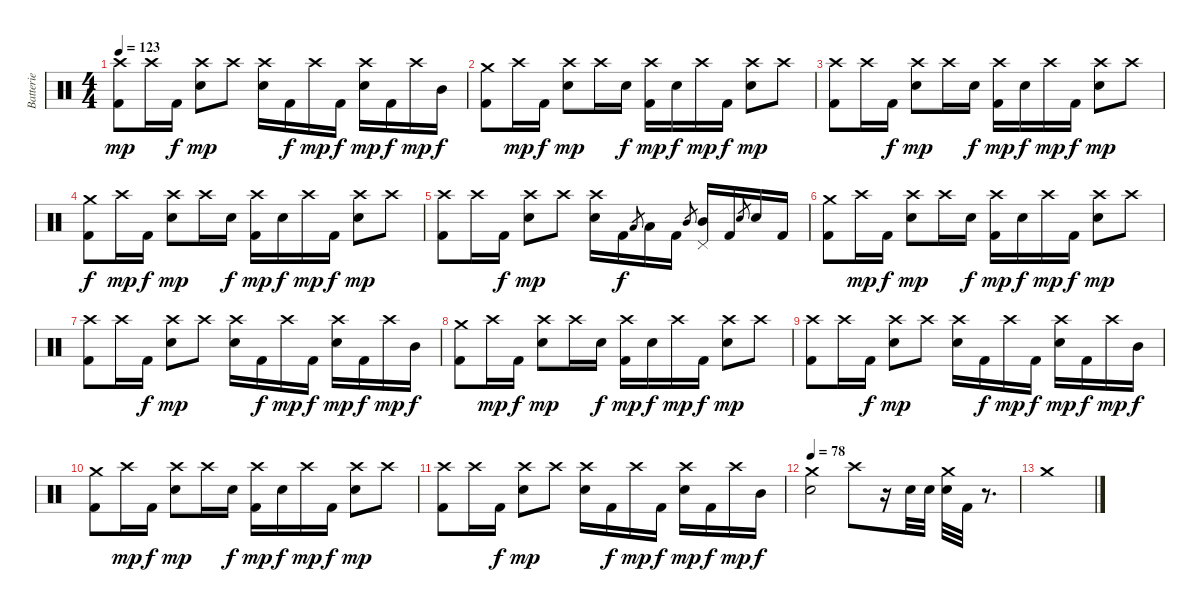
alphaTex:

\track ("Batterie" "Batterie") {instrument percussion}
\staff {score}
\articulation defaults
\ts (4 4)
\tempo 123
\clef neutral
\ks c
("Crash high (hit)" "Kick (hit) 2").8{dy mp} "Crash high (hit)".16 "Kick (hit) 2".16{dy f} ("Crash high (hit)" "Snare (hit) 2").8{dy mp} "Crash high (hit)".8 ("Crash high (hit)" "Snare (hit) 2").16 "Kick (hit) 2".16{dy f} "Crash high (hit)".16{dy mp} "Kick (hit) 2".16{dy f} ("Crash high (hit)" "Snare (hit) 2").16{dy mp} "Kick (hit) 2".16{dy f} "Crash high (hit)".16{dy mp} "Mid Tom (hit)".16{dy f} |
("Crash medium (hit)" "Kick (hit) 2").8 "Crash high (hit)".16{dy mp} "Kick (hit) 2".16{dy f} ("Crash high (hit)" "Snare (hit) 2").8{dy mp} "Crash high (hit)".16 "Snare (hit) 2".16{dy f} ("Crash high (hit)" "Kick (hit) 2").16{dy mp} "Snare (hit) 2".16{dy f} "Crash high (hit)".16{dy mp} "Kick (hit) 2".16{dy f} ("Crash high (hit)" "Snare (hit) 2").8{dy mp} "Crash high (hit)".8 |
("Crash high (hit)" "Kick (hit) 2").8 "Crash high (hit)".16 "Kick (hit) 2".16{dy f} ("Crash high (hit)" "Snare (hit) 2").8{dy mp} "Crash high (hit)".16 "Snare (hit) 2".16{dy f} ("Crash high (hit)" "Kick (hit) 2").16{dy mp} "Snare (hit) 2".16{dy f} "Crash high (hit)".16{dy mp} "Kick (hit) 2".16{dy f} ("Crash high (hit)" "Snare (hit) 2").8{dy mp} "Crash high (hit)".8 |
("Crash medium (hit)" "Kick (hit) 2").8{dy f} "Crash high (hit)".16{dy mp} "Kick (hit) 2".16{dy f} ("Crash high (hit)" "Snare (hit) 2").8{dy mp} "Crash high (hit)".16 "Snare (hit) 2".16{dy f} ("Crash high (hit)" "Kick (hit) 2").16{dy mp} "Snare (hit) 2".16{dy f} "Crash high (hit)".16{dy mp} "Kick (hit) 2".16{dy f} ("Crash high (hit)" "Snare (hit) 2").8{dy mp} "Crash high (hit)".8 |
("Crash high (hit)" "Kick (hit) 2").8 "Crash high (hit)".16 "Kick (hit) 2".16{dy f} ("Crash high (hit)" "Snare (hit) 2").8{dy mp} "Crash high (hit)".8 ("Crash high (hit)" "Snare (hit) 2").16 "Kick (hit) 2".16{dy f} "Low Tom (hit)".8{gr} "Low Tom (hit)".16 "Kick (hit) 2".16 "Mid Tom (hit)".8{gr} ("Pedal Hi-Hat (hit)" "Mid Tom (hit)").16 "Kick (hit) 2".16 "Snare (hit) 2".8{gr} "Snare (hit) 2".16 "Kick (hit) 2".16 |
("Crash medium (hit)" "Kick (hit) 2").8 "Crash high (hit)".16{dy mp} "Kick (hit) 2".16{dy f} ("Crash high (hit)" "Snare (hit) 2").8{dy mp} "Crash high (hit)".16 "Snare (hit) 2".16{dy f} ("Crash high (hit)" "Kick (hit) 2").16{dy mp} "Snare (hit) 2".16{dy f} "Crash high (hit)".16{dy mp} "Kick (hit) 2".16{dy f} ("Crash high (hit)" "Snare (hit) 2").8{dy mp} "Crash high (hit)".8 |
("Crash high (hit)" "Kick (hit) 2").8 "Crash high (hit)".16 "Kick (hit) 2".16{dy f} ("Crash high (hit)" "Snare (hit) 2").8{dy mp} "Crash high (hit)".8 ("Crash high (hit)" "Snare (hit) 2").16 "Kick (hit) 2".16{dy f} "Crash high (hit)".16{dy mp} "Kick (hit) 2".16{dy f} ("Crash high (hit)" "Snare (hit) 2").16{dy mp} "Kick (hit) 2".16{dy f} "Crash high (hit)".16{dy mp} "Mid Tom (hit)".16{dy f} |
("Crash medium (hit)" "Kick (hit) 2").8 "Crash high (hit)".16{dy mp} "Kick (hit) 2".16{dy f} ("Crash high (hit)" "Snare (hit) 2").8{dy mp} "Crash high (hit)".16 "Snare (hit) 2".16{dy f} ("Crash high (hit)" "Kick (hit) 2").16{dy mp} "Snare (hit) 2".16{dy f} "Crash high (hit)".16{dy mp} "Kick (hit) 2".16{dy f} ("Crash high (hit)" "Snare (hit) 2").8{dy mp} "Crash high (hit)".8 |
("Crash high (hit)" "Kick (hit) 2").8 "Crash high (hit)".16 "Kick (hit) 2".16{dy f} ("Crash high (hit)" "Snare (hit) 2").8{dy mp} "Crash high (hit)".8 ("Crash high (hit)" "Snare (hit) 2").16 "Kick (hit) 2".16{dy f} "Crash high (hit)".16{dy mp} "Kick (hit) 2".16{dy f} ("Crash high (hit)" "Snare (hit) 2").16{dy mp} "Kick (hit) 2".16{dy f} "Crash high (hit)".16{dy mp} "Mid Tom (hit)".16{dy f} |
("Crash medium (hit)" "Kick (hit) 2").8 "Crash high (hit)".16{dy mp} "Kick (hit) 2".16{dy f} ("Crash high (hit)" "Snare (hit) 2").8{dy mp} "Crash high (hit)".16 "Snare (hit) 2".16{dy f} ("Crash high (hit)" "Kick (hit) 2").16{dy mp} "Snare (hit) 2".16{dy f} "Crash high (hit)".16{dy mp} "Kick (hit) 2".16{dy f} ("Crash high (hit)" "Snare (hit) 2").8{dy mp} "Crash high (hit)".8 |
("Crash high (hit)" "Kick (hit) 2").8 "Crash high (hit)".16 "Kick (hit) 2".16{dy f} ("Crash high (hit)" "Snare (hit) 2").8{dy mp} "Crash high (hit)".8 ("Crash high (hit)" "Snare (hit) 2").16 "Kick (hit) 2".16{dy f} "Crash high (hit)".16{dy mp} "Kick (hit) 2".16{dy f} ("Crash high (hit)" "Snare (hit) 2").16{dy mp} "Kick (hit) 2".16{dy f} "Crash high (hit)".16{dy mp} "Mid Tom (hit)".16{dy f} |
\tempo 78
("Crash medium (hit)" "Snare (hit) 2").2 "Crash high (hit)".8 r.16 "Snare (hit) 2".32 "Snare (hit) 2".32 ("Crash medium (hit)" "Snare (hit) 2").32 "Kick (hit) 2".32 r.8{d} |
"Crash medium (hit)".1
